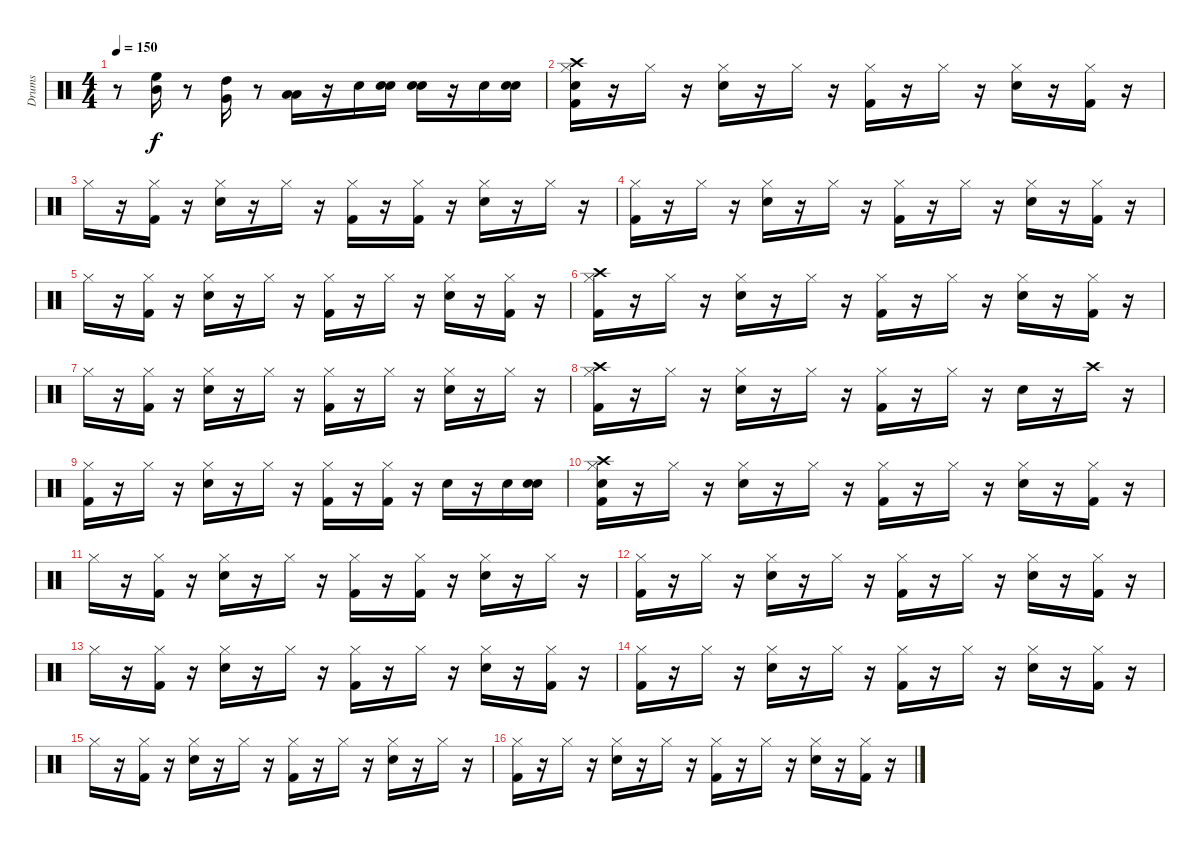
\track ("Drums" "Drums") {instrument percussion}
\staff {score}
\articulation defaults
\ts (4 4)
\tempo 150
\clef neutral
\ks c
r.8{dy f} ("Mid Tom (hit)" "High Floor Tom (hit)").16 r.8 ("High Tom (hit)" "Very Low Tom (hit)").16 r.8 ("Low Tom (hit)" "Low Floor Tom (hit)").16 r.16 "Snare (hit) 2".16 ("Snare (hit)" "Snare (hit) 2").16 ("Snare (hit)" "Snare (hit) 2").16 r.16 "Snare (hit) 2".16 ("Snare (hit)" "Snare (hit) 2").16 |
("Snare (hit)" "Crash high (hit)" "Kick (hit) 2" "Hi-Hat (closed)").16 r.16 "Hi-Hat (closed)".16 r.16 ("Snare (hit) 2" "Hi-Hat (closed)").16 r.16 "Hi-Hat (closed)".16 r.16 ("Kick (hit) 2" "Hi-Hat (closed)").16 r.16 "Hi-Hat (closed)".16 r.16 ("Snare (hit) 2" "Hi-Hat (closed)").16 r.16 ("Kick (hit) 2" "Hi-Hat (closed)").16 r.16 |
"Hi-Hat (closed)".16 r.16 ("Kick (hit) 2" "Hi-Hat (closed)").16 r.16 ("Snare (hit) 2" "Hi-Hat (closed)").16 r.16 "Hi-Hat (closed)".16 r.16 ("Kick (hit) 2" "Hi-Hat (closed)").16 r.16 ("Kick (hit) 2" "Hi-Hat (closed)").16 r.16 ("Snare (hit) 2" "Hi-Hat (closed)").16 r.16 "Hi-Hat (closed)".16 r.16 |
("Kick (hit) 2" "Hi-Hat (closed)").16 r.16 "Hi-Hat (closed)".16 r.16 ("Snare (hit) 2" "Hi-Hat (closed)").16 r.16 "Hi-Hat (closed)".16 r.16 ("Kick (hit) 2" "Hi-Hat (closed)").16 r.16 "Hi-Hat (closed)".16 r.16 ("Snare (hit) 2" "Hi-Hat (closed)").16 r.16 ("Kick (hit) 2" "Hi-Hat (closed)").16 r.16 |
"Hi-Hat (closed)".16 r.16 ("Kick (hit) 2" "Hi-Hat (closed)").16 r.16 ("Snare (hit) 2" "Hi-Hat (closed)").16 r.16 "Hi-Hat (closed)".16 r.16 ("Kick (hit) 2" "Hi-Hat (closed)").16 r.16 "Hi-Hat (closed)".16 r.16 ("Snare (hit) 2" "Hi-Hat (closed)").16 r.16 ("Kick (hit) 2" "Hi-Hat (closed)").16 r.16 |
("Crash high (hit)" "Kick (hit) 2" "Hi-Hat (closed)").16 r.16 "Hi-Hat (closed)".16 r.16 ("Snare (hit) 2" "Hi-Hat (closed)").16 r.16 "Hi-Hat (closed)".16 r.16 ("Kick (hit) 2" "Hi-Hat (closed)").16 r.16 "Hi-Hat (closed)".16 r.16 ("Snare (hit) 2" "Hi-Hat (closed)").16 r.16 ("Kick (hit) 2" "Hi-Hat (closed)").16 r.16 |
"Hi-Hat (closed)".16 r.16 ("Kick (hit) 2" "Hi-Hat (closed)").16 r.16 ("Snare (hit) 2" "Hi-Hat (closed)").16 r.16 "Hi-Hat (closed)".16 r.16 ("Kick (hit) 2" "Hi-Hat (closed)").16 r.16 "Hi-Hat (closed)".16 r.16 ("Snare (hit) 2" "Hi-Hat (closed)").16 r.16 "Hi-Hat (closed)".16 r.16 |
("Crash high (hit)" "Kick (hit) 2" "Hi-Hat (closed)").16 r.16 "Hi-Hat (closed)".16 r.16 ("Snare (hit) 2" "Hi-Hat (closed)").16 r.16 "Hi-Hat (closed)".16 r.16 ("Kick (hit) 2" "Hi-Hat (closed)").16 r.16 "Hi-Hat (closed)".16 r.16 "Snare (hit) 2".16 r.16 "Crash high (hit)".16 r.16 |
("Kick (hit) 2" "Hi-Hat (closed)").16 r.16 "Hi-Hat (closed)".16 r.16 ("Snare (hit) 2" "Hi-Hat (closed)").16 r.16 "Hi-Hat (closed)".16 r.16 ("Kick (hit) 2" "Hi-Hat (closed)").16 r.16 ("Kick (hit) 2" "Hi-Hat (closed)").16 r.16 "Snare (hit) 2".16 r.16 "Snare (hit) 2".16 ("Snare (hit)" "Snare (hit) 2").16 |
("Snare (hit)" "Crash high (hit)" "Kick (hit) 2" "Hi-Hat (closed)").16 r.16 "Hi-Hat (closed)".16 r.16 ("Snare (hit) 2" "Hi-Hat (closed)").16 r.16 "Hi-Hat (closed)".16 r.16 ("Kick (hit) 2" "Hi-Hat (closed)").16 r.16 "Hi-Hat (closed)".16 r.16 ("Snare (hit) 2" "Hi-Hat (closed)").16 r.16 ("Kick (hit) 2" "Hi-Hat (closed)").16 r.16 |
"Hi-Hat (closed)".16 r.16 ("Kick (hit) 2" "Hi-Hat (closed)").16 r.16 ("Snare (hit) 2" "Hi-Hat (closed)").16 r.16 "Hi-Hat (closed)".16 r.16 ("Kick (hit) 2" "Hi-Hat (closed)").16 r.16 ("Kick (hit) 2" "Hi-Hat (closed)").16 r.16 ("Snare (hit) 2" "Hi-Hat (closed)").16 r.16 "Hi-Hat (closed)".16 r.16 |
("Kick (hit) 2" "Hi-Hat (closed)").16 r.16 "Hi-Hat (closed)".16 r.16 ("Snare (hit) 2" "Hi-Hat (closed)").16 r.16 "Hi-Hat (closed)".16 r.16 ("Kick (hit) 2" "Hi-Hat (closed)").16 r.16 "Hi-Hat (closed)".16 r.16 ("Snare (hit) 2" "Hi-Hat (closed)").16 r.16 ("Kick (hit) 2" "Hi-Hat (closed)").16 r.16 |
"Hi-Hat (closed)".16 r.16 ("Kick (hit) 2" "Hi-Hat (closed)").16 r.16 ("Snare (hit) 2" "Hi-Hat (closed)").16 r.16 "Hi-Hat (closed)".16 r.16 ("Kick (hit) 2" "Hi-Hat (closed)").16 r.16 "Hi-Hat (closed)".16 r.16 ("Snare (hit) 2" "Hi-Hat (closed)").16 r.16 ("Kick (hit) 2" "Hi-Hat (closed)").16 r.16 |
("Kick (hit) 2" "Hi-Hat (closed)").16 r.16 "Hi-Hat (closed)".16 r.16 ("Snare (hit) 2" "Hi-Hat (closed)").16 r.16 "Hi-Hat (closed)".16 r.16 ("Kick (hit) 2" "Hi-Hat (closed)").16 r.16 "Hi-Hat (closed)".16 r.16 ("Snare (hit) 2" "Hi-Hat (closed)").16 r.16 ("Kick (hit) 2" "Hi-Hat (closed)").16 r.16 |
"Hi-Hat (closed)".16 r.16 ("Kick (hit) 2" "Hi-Hat (closed)").16 r.16 ("Snare (hit) 2" "Hi-Hat (closed)").16 r.16 "Hi-Hat (closed)".16 r.16 ("Kick (hit) 2" "Hi-Hat (closed)").16 r.16 "Hi-Hat (closed)".16 r.16 ("Snare (hit) 2" "Hi-Hat (closed)").16 r.16 "Hi-Hat (closed)".16 r.16 |
("Kick (hit) 2" "Hi-Hat (closed)").16 r.16 "Hi-Hat (closed)".16 r.16 ("Snare (hit) 2" "Hi-Hat (closed)").16 r.16 "Hi-Hat (closed)".16 r.16 ("Kick (hit) 2" "Hi-Hat (closed)").16 r.16 "Hi-Hat (closed)".16 r.16 ("Snare (hit) 2" "Hi-Hat (closed)").16 r.16 ("Kick (hit) 2" "Hi-Hat (closed)").16 r.16
